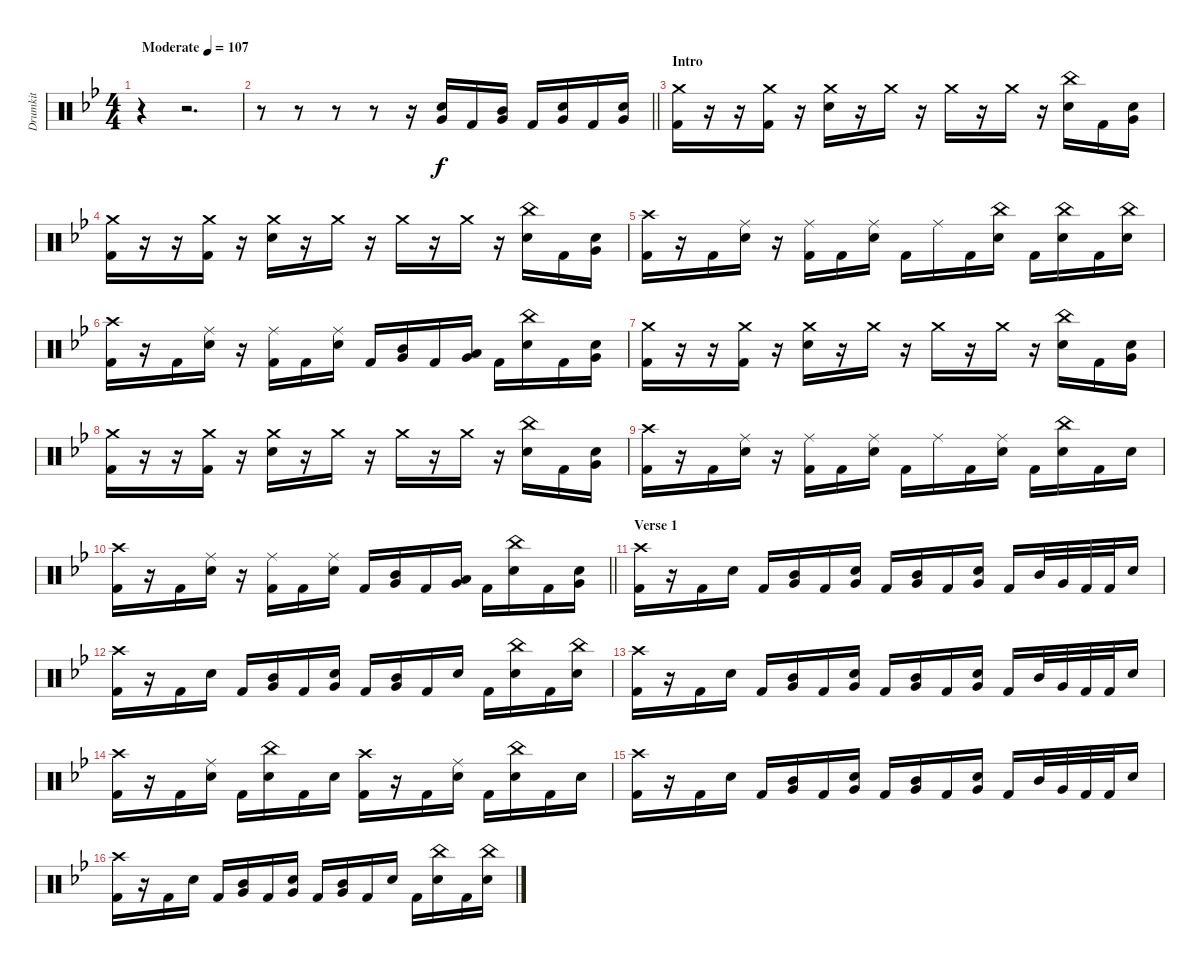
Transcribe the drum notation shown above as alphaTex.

\track ("Drumkit" "Drumkit") {instrument percussion}
\staff {score}
\articulation defaults
\ts (4 4)
\tempo (107 "Moderate")
\clef neutral
\ks bb
r.4{dy f} r.2{d} |
\barLineRight lightlight
r.8 r.8 r.8 r.8 r.16 ("Snare (hit) 2" "Very Low Tom (hit)").16 "Kick (hit) 2".16 ("Mid Tom (hit)" "Very Low Tom (hit)").16 "Kick (hit) 2".16 ("Snare (hit) 2" "Very Low Tom (hit)").16 "Kick (hit) 2".16 ("Snare (hit) 2" "Very Low Tom (hit)").16 |
\section ("" "Intro")
("Crash medium (hit)" "Kick (hit) 2").16 r.16 r.16 ("Crash medium (hit)" "Kick (hit) 2").16 r.16 ("Crash medium (hit)" "Snare (hit) 2").16 r.16 "Crash medium (hit)".16 r.16 "Crash medium (hit)".16 r.16 "Crash medium (hit)".16 r.16 ("China (hit)" "Snare (hit) 2").16 "Kick (hit) 2".16 ("Snare (hit) 2" "Very Low Tom (hit)").16 |
("Crash medium (hit)" "Kick (hit) 2").16 r.16 r.16 ("Crash medium (hit)" "Kick (hit) 2").16 r.16 ("Crash medium (hit)" "Snare (hit) 2").16 r.16 "Crash medium (hit)".16 r.16 "Crash medium (hit)".16 r.16 "Crash medium (hit)".16 r.16 ("China (hit)" "Snare (hit) 2").16 "Kick (hit) 2".16 ("Snare (hit) 2" "Very Low Tom (hit)").16 |
("Crash high (hit)" "Kick (hit) 2").16 r.16 "Kick (hit) 2".16 ("Ride (middle)" "Snare (hit) 2").16 r.16 ("Ride (middle)" "Kick (hit) 2").16 "Kick (hit) 2".16 ("Ride (middle)" "Snare (hit) 2").16 "Kick (hit) 2".16 "Ride (middle)".16 "Kick (hit) 2".16 ("China (hit)" "Snare (hit) 2").16 "Kick (hit) 2".16 ("China (hit)" "Snare (hit) 2").16 "Kick (hit) 2".16 ("China (hit)" "Snare (hit) 2").16 |
("Crash high (hit)" "Kick (hit) 2").16 r.16 "Kick (hit) 2".16 ("Ride (middle)" "Snare (hit) 2").16 r.16 ("Ride (middle)" "Kick (hit) 2").16 "Kick (hit) 2".16 ("Ride (middle)" "Snare (hit) 2").16 "Kick (hit) 2".16 ("Mid Tom (hit)" "Very Low Tom (hit)").16 "Kick (hit) 2".16 ("Low Tom (hit)" "Very Low Tom (hit)").16 "Kick (hit) 2".16 ("China (hit)" "Snare (hit) 2").16 "Kick (hit) 2".16 ("Snare (hit) 2" "Very Low Tom (hit)").16 |
("Crash medium (hit)" "Kick (hit) 2").16 r.16 r.16 ("Crash medium (hit)" "Kick (hit) 2").16 r.16 ("Crash medium (hit)" "Snare (hit) 2").16 r.16 "Crash medium (hit)".16 r.16 "Crash medium (hit)".16 r.16 "Crash medium (hit)".16 r.16 ("China (hit)" "Snare (hit) 2").16 "Kick (hit) 2".16 ("Snare (hit) 2" "Very Low Tom (hit)").16 |
("Crash medium (hit)" "Kick (hit) 2").16 r.16 r.16 ("Crash medium (hit)" "Kick (hit) 2").16 r.16 ("Crash medium (hit)" "Snare (hit) 2").16 r.16 "Crash medium (hit)".16 r.16 "Crash medium (hit)".16 r.16 "Crash medium (hit)".16 r.16 ("China (hit)" "Snare (hit) 2").16 "Kick (hit) 2".16 ("Snare (hit) 2" "Very Low Tom (hit)").16 |
("Crash high (hit)" "Kick (hit) 2").16 r.16 "Kick (hit) 2".16 ("Ride (middle)" "Snare (hit) 2").16 r.16 ("Ride (middle)" "Kick (hit) 2").16 "Kick (hit) 2".16 ("Ride (middle)" "Snare (hit) 2").16 "Kick (hit) 2".16 "Ride (middle)".16 "Kick (hit) 2".16 ("Ride (middle)" "Snare (hit) 2").16 "Kick (hit) 2".16 ("China (hit)" "Snare (hit) 2").16 "Kick (hit) 2".16 "Snare (hit) 2".16 |
\barLineRight lightlight
("Crash high (hit)" "Kick (hit) 2").16 r.16 "Kick (hit) 2".16 ("Ride (middle)" "Snare (hit) 2").16 r.16 ("Ride (middle)" "Kick (hit) 2").16 "Kick (hit) 2".16 ("Ride (middle)" "Snare (hit) 2").16 "Kick (hit) 2".16 ("Mid Tom (hit)" "Very Low Tom (hit)").16 "Kick (hit) 2".16 ("Low Tom (hit)" "Very Low Tom (hit)").16 "Kick (hit) 2".16 ("China (hit)" "Snare (hit) 2").16 "Kick (hit) 2".16 ("Snare (hit) 2" "Very Low Tom (hit)").16 |
\section ("" "Verse 1")
("Crash high (hit)" "Kick (hit) 2").16 r.16 "Kick (hit) 2".16 "Snare (hit) 2".16 "Kick (hit) 2".16 ("Mid Tom (hit)" "Very Low Tom (hit)").16 "Kick (hit) 2".16 ("Snare (hit) 2" "Very Low Tom (hit)").16 "Kick (hit) 2".16 ("Mid Tom (hit)" "Very Low Tom (hit)").16 "Kick (hit) 2".16 ("Snare (hit) 2" "Very Low Tom (hit)").16 "Kick (hit) 2".16 "Mid Tom (hit)".32 "Very Low Tom (hit)".32 "Kick (hit) 2".32 "Kick (hit) 2".32 "Snare (hit) 2".16 |
("Crash high (hit)" "Kick (hit) 2").16 r.16 "Kick (hit) 2".16 "Snare (hit) 2".16 "Kick (hit) 2".16 ("Mid Tom (hit)" "Very Low Tom (hit)").16 "Kick (hit) 2".16 ("Snare (hit) 2" "Very Low Tom (hit)").16 "Kick (hit) 2".16 ("Mid Tom (hit)" "Very Low Tom (hit)").16 "Kick (hit) 2".16 "Snare (hit) 2".16 "Kick (hit) 2".16 ("China (hit)" "Snare (hit) 2").16 "Kick (hit) 2".16 ("China (hit)" "Snare (hit) 2").16 |
("Crash high (hit)" "Kick (hit) 2").16 r.16 "Kick (hit) 2".16 "Snare (hit) 2".16 "Kick (hit) 2".16 ("Mid Tom (hit)" "Very Low Tom (hit)").16 "Kick (hit) 2".16 ("Snare (hit) 2" "Very Low Tom (hit)").16 "Kick (hit) 2".16 ("Mid Tom (hit)" "Very Low Tom (hit)").16 "Kick (hit) 2".16 ("Snare (hit) 2" "Very Low Tom (hit)").16 "Kick (hit) 2".16 "Mid Tom (hit)".32 "Very Low Tom (hit)".32 "Kick (hit) 2".32 "Kick (hit) 2".32 "Snare (hit) 2".16 |
("Crash high (hit)" "Kick (hit) 2").16 r.16 "Kick (hit) 2".16 ("Ride (middle)" "Snare (hit) 2").16 "Kick (hit) 2".16 ("China (hit)" "Snare (hit) 2").16 "Kick (hit) 2".16 "Snare (hit) 2".16 ("Crash high (hit)" "Kick (hit) 2").16 r.16 "Kick (hit) 2".16 ("Ride (middle)" "Snare (hit) 2").16 "Kick (hit) 2".16 ("China (hit)" "Snare (hit) 2").16 "Kick (hit) 2".16 "Snare (hit) 2".16 |
("Crash high (hit)" "Kick (hit) 2").16 r.16 "Kick (hit) 2".16 "Snare (hit) 2".16 "Kick (hit) 2".16 ("Mid Tom (hit)" "Very Low Tom (hit)").16 "Kick (hit) 2".16 ("Snare (hit) 2" "Very Low Tom (hit)").16 "Kick (hit) 2".16 ("Mid Tom (hit)" "Very Low Tom (hit)").16 "Kick (hit) 2".16 ("Snare (hit) 2" "Very Low Tom (hit)").16 "Kick (hit) 2".16 "Mid Tom (hit)".32 "Very Low Tom (hit)".32 "Kick (hit) 2".32 "Kick (hit) 2".32 "Snare (hit) 2".16 |
("Crash high (hit)" "Kick (hit) 2").16 r.16 "Kick (hit) 2".16 "Snare (hit) 2".16 "Kick (hit) 2".16 ("Mid Tom (hit)" "Very Low Tom (hit)").16 "Kick (hit) 2".16 ("Snare (hit) 2" "Very Low Tom (hit)").16 "Kick (hit) 2".16 ("Mid Tom (hit)" "Very Low Tom (hit)").16 "Kick (hit) 2".16 "Snare (hit) 2".16 "Kick (hit) 2".16 ("China (hit)" "Snare (hit) 2").16 "Kick (hit) 2".16 ("China (hit)" "Snare (hit) 2").16
